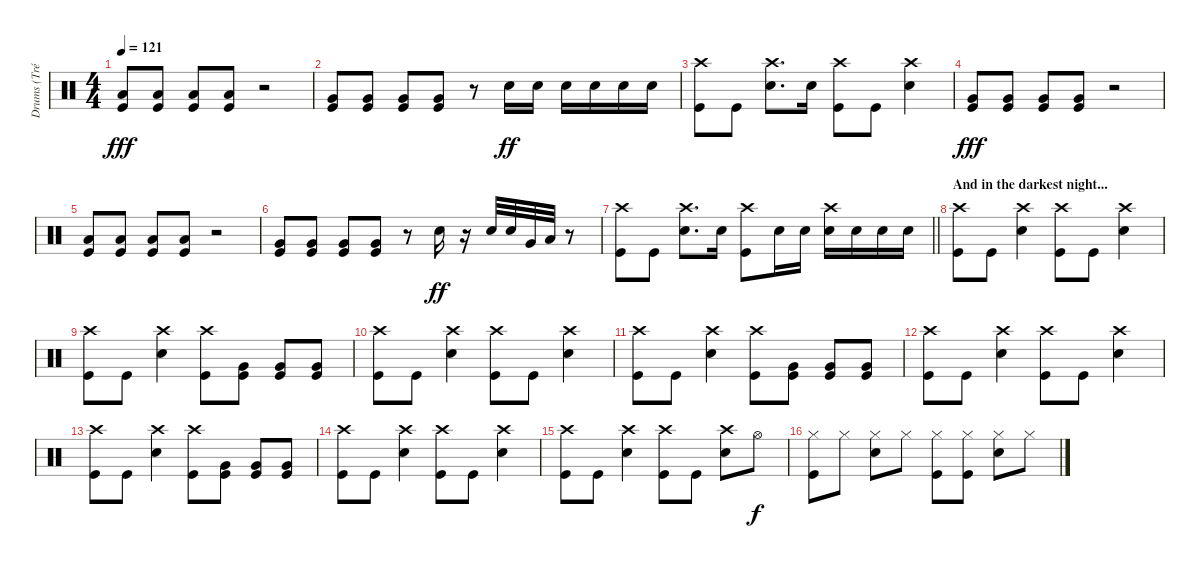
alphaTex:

\track ("Drums (Tré)" "Drums (Tré") {instrument percussion}
\staff {score}
\articulation defaults
\ts (4 4)
\tempo 121
\clef neutral
\ks c
("Low Floor Tom (hit)" "Kick (hit)").8{dy fff} ("Low Floor Tom (hit)" "Kick (hit)").8 ("Low Floor Tom (hit)" "Kick (hit)").8 ("Low Floor Tom (hit)" "Kick (hit)").8 r.2 |
("Very Low Tom (hit)" "Kick (hit)").8 ("Very Low Tom (hit)" "Kick (hit)").8 ("Very Low Tom (hit)" "Kick (hit)").8 ("Very Low Tom (hit)" "Kick (hit)").8 r.8 "Snare (hit) 2".16{dy ff} "Snare (hit) 2".16 "Snare (hit) 2".16 "Snare (hit) 2".16 "Snare (hit) 2".16 "Snare (hit) 2".16 |
("Crash high (hit)" "Kick (hit)").8 "Kick (hit)".8 ("Crash high (hit)" "Snare (hit) 2").8{d} "Snare (hit) 2".16 ("Crash high (hit)" "Kick (hit)").8 "Kick (hit)".8 ("Crash high (hit)" "Snare (hit) 2").4 |
("Very Low Tom (hit)" "Kick (hit)").8{dy fff} ("Very Low Tom (hit)" "Kick (hit)").8 ("Very Low Tom (hit)" "Kick (hit)").8 ("Very Low Tom (hit)" "Kick (hit)").8 r.2 |
("Low Floor Tom (hit)" "Kick (hit)").8 ("Low Floor Tom (hit)" "Kick (hit)").8 ("Low Floor Tom (hit)" "Kick (hit)").8 ("Low Floor Tom (hit)" "Kick (hit)").8 r.2 |
("Very Low Tom (hit)" "Kick (hit)").8 ("Very Low Tom (hit)" "Kick (hit)").8 ("Very Low Tom (hit)" "Kick (hit)").8 ("Very Low Tom (hit)" "Kick (hit)").8 r.8 "Snare (hit) 2".16{dy ff} r.16 "Snare (hit) 2".32 "Snare (hit) 2".32 "Very Low Tom (hit)".32 "Low Floor Tom (hit)".32 r.8 |
\barLineRight lightlight
("Crash high (hit)" "Kick (hit)").8 "Kick (hit)".8 ("Crash high (hit)" "Snare (hit) 2").8{d} "Snare (hit) 2".16 ("Crash high (hit)" "Kick (hit)").8 "Snare (hit) 2".16 "Snare (hit) 2".16 ("Crash high (hit)" "Snare (hit) 2").16 "Snare (hit) 2".16 "Snare (hit) 2".16 "Snare (hit) 2".16 |
\section ("" "And in the darkest night...")
("Crash high (hit)" "Kick (hit)").8 "Kick (hit)".8 ("Crash high (hit)" "Snare (hit) 2").4 ("Crash high (hit)" "Kick (hit)").8 "Kick (hit)".8 ("Crash high (hit)" "Snare (hit) 2").4 |
("Crash high (hit)" "Kick (hit)").8 "Kick (hit)".8 ("Crash high (hit)" "Snare (hit) 2").4 ("Crash high (hit)" "Kick (hit)").8 ("Very Low Tom (hit)" "Kick (hit)").8 ("Very Low Tom (hit)" "Kick (hit)").8 ("Very Low Tom (hit)" "Kick (hit)").8 |
("Crash high (hit)" "Kick (hit)").8 "Kick (hit)".8 ("Crash high (hit)" "Snare (hit) 2").4 ("Crash high (hit)" "Kick (hit)").8 "Kick (hit)".8 ("Crash high (hit)" "Snare (hit) 2").4 |
("Crash high (hit)" "Kick (hit)").8 "Kick (hit)".8 ("Crash high (hit)" "Snare (hit) 2").4 ("Crash high (hit)" "Kick (hit)").8 ("Very Low Tom (hit)" "Kick (hit)").8 ("Very Low Tom (hit)" "Kick (hit)").8 ("Very Low Tom (hit)" "Kick (hit)").8 |
("Crash high (hit)" "Kick (hit)").8 "Kick (hit)".8 ("Crash high (hit)" "Snare (hit) 2").4 ("Crash high (hit)" "Kick (hit)").8 "Kick (hit)".8 ("Crash high (hit)" "Snare (hit) 2").4 |
("Crash high (hit)" "Kick (hit)").8 "Kick (hit)".8 ("Crash high (hit)" "Snare (hit) 2").4 ("Crash high (hit)" "Kick (hit)").8 ("Very Low Tom (hit)" "Kick (hit)").8 ("Very Low Tom (hit)" "Kick (hit)").8 ("Very Low Tom (hit)" "Kick (hit)").8 |
("Crash high (hit)" "Kick (hit)").8 "Kick (hit)".8 ("Crash high (hit)" "Snare (hit) 2").4 ("Crash high (hit)" "Kick (hit)").8 "Kick (hit)".8 ("Crash high (hit)" "Snare (hit) 2").4 |
("Crash high (hit)" "Kick (hit)").8 "Kick (hit)".8 ("Crash high (hit)" "Snare (hit) 2").4 ("Crash high (hit)" "Kick (hit)").8 "Kick (hit)".8 ("Crash high (hit)" "Snare (hit) 2").8 "Hi-Hat (open)".8{dy f} |
("Hi-Hat (closed)" "Kick (hit)").8 "Hi-Hat (closed)".8 ("Hi-Hat (closed)" "Snare (hit) 2").8 "Hi-Hat (closed)".8 ("Hi-Hat (closed)" "Kick (hit)").8 ("Hi-Hat (closed)" "Kick (hit)").8 ("Hi-Hat (closed)" "Snare (hit) 2").8 "Hi-Hat (closed)".8
